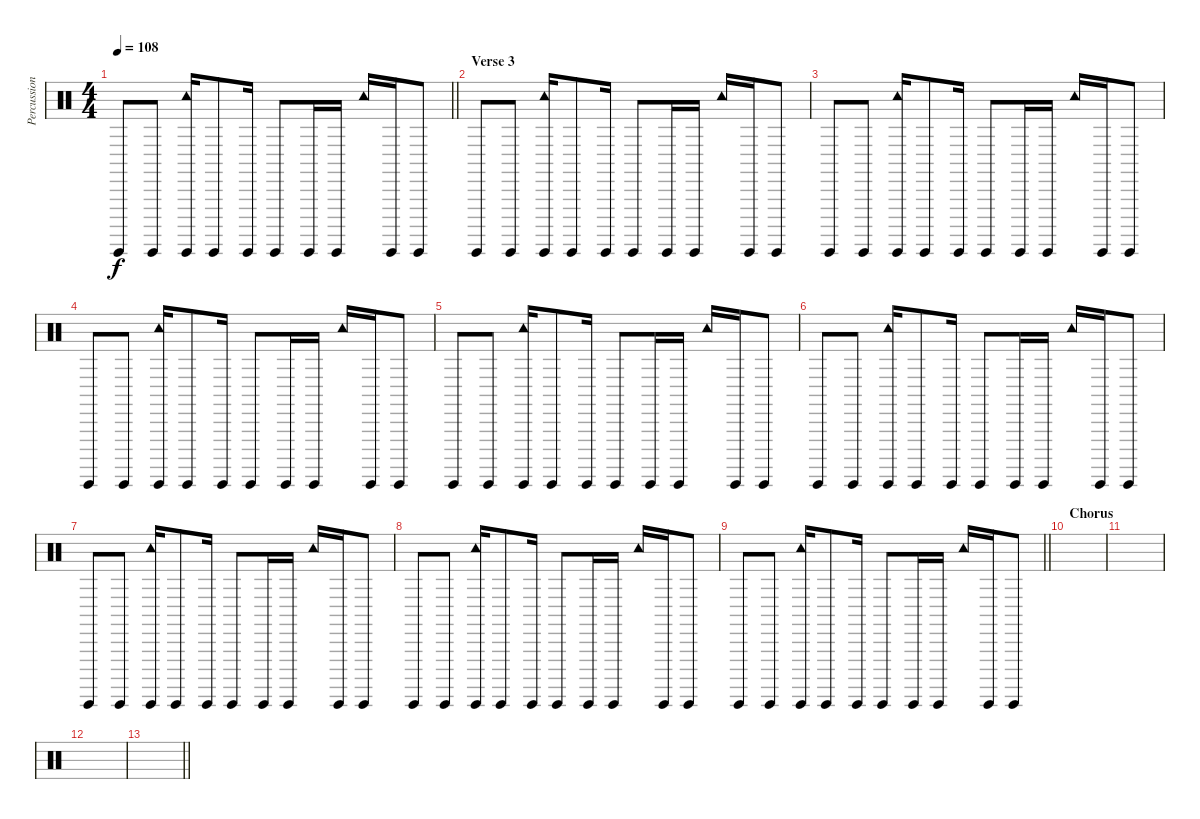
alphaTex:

\track ("Percussion (Chad Smith)" "Percussion") {instrument percussion}
\staff {score}
\articulation defaults
\ts (4 4)
\tempo 108
\clef neutral
\barLineRight lightlight
\ks c "Guiro (hit)".8{dy f} "Guiro (hit)".8
("Guiro (hit)" "Tambourine (hit)").16 "Guiro (hit)".8 "Guiro (hit)".16 "Guiro (hit)".8 "Guiro (hit)".16 "Guiro (hit)".16 "Tambourine (hit)".16 "Guiro (hit)".16 "Guiro (hit)".8 |
\section ("" "Verse 3")
"Guiro (hit)".8 "Guiro (hit)".8 ("Guiro (hit)" "Tambourine (hit)").16 "Guiro (hit)".8 "Guiro (hit)".16 "Guiro (hit)".8 "Guiro (hit)".16 "Guiro (hit)".16 "Tambourine (hit)".16 "Guiro (hit)".16 "Guiro (hit)".8 |
"Guiro (hit)".8 "Guiro (hit)".8 ("Guiro (hit)" "Tambourine (hit)").16 "Guiro (hit)".8 "Guiro (hit)".16 "Guiro (hit)".8 "Guiro (hit)".16 "Guiro (hit)".16 "Tambourine (hit)".16 "Guiro (hit)".16 "Guiro (hit)".8 |
"Guiro (hit)".8 "Guiro (hit)".8 ("Guiro (hit)" "Tambourine (hit)").16 "Guiro (hit)".8 "Guiro (hit)".16 "Guiro (hit)".8 "Guiro (hit)".16 "Guiro (hit)".16 "Tambourine (hit)".16 "Guiro (hit)".16 "Guiro (hit)".8 |
"Guiro (hit)".8 "Guiro (hit)".8 ("Guiro (hit)" "Tambourine (hit)").16 "Guiro (hit)".8 "Guiro (hit)".16 "Guiro (hit)".8 "Guiro (hit)".16 "Guiro (hit)".16 "Tambourine (hit)".16 "Guiro (hit)".16 "Guiro (hit)".8 |
"Guiro (hit)".8 "Guiro (hit)".8 ("Guiro (hit)" "Tambourine (hit)").16 "Guiro (hit)".8 "Guiro (hit)".16 "Guiro (hit)".8 "Guiro (hit)".16 "Guiro (hit)".16 "Tambourine (hit)".16 "Guiro (hit)".16 "Guiro (hit)".8 |
"Guiro (hit)".8 "Guiro (hit)".8 ("Guiro (hit)" "Tambourine (hit)").16 "Guiro (hit)".8 "Guiro (hit)".16 "Guiro (hit)".8 "Guiro (hit)".16 "Guiro (hit)".16 "Tambourine (hit)".16 "Guiro (hit)".16 "Guiro (hit)".8 |
"Guiro (hit)".8 "Guiro (hit)".8 ("Guiro (hit)" "Tambourine (hit)").16 "Guiro (hit)".8 "Guiro (hit)".16 "Guiro (hit)".8 "Guiro (hit)".16 "Guiro (hit)".16 "Tambourine (hit)".16 "Guiro (hit)".16 "Guiro (hit)".8 |
\barLineRight lightlight "Guiro (hit)".8 "Guiro (hit)".8
("Guiro (hit)" "Tambourine (hit)").16 "Guiro (hit)".8 "Guiro (hit)".16 "Guiro (hit)".8 "Guiro (hit)".16 "Guiro (hit)".16 "Tambourine (hit)".16 "Guiro (hit)".16 "Guiro (hit)".8 |
\section ("" "Chorus")
|
|
|
\barLineRight lightlight
